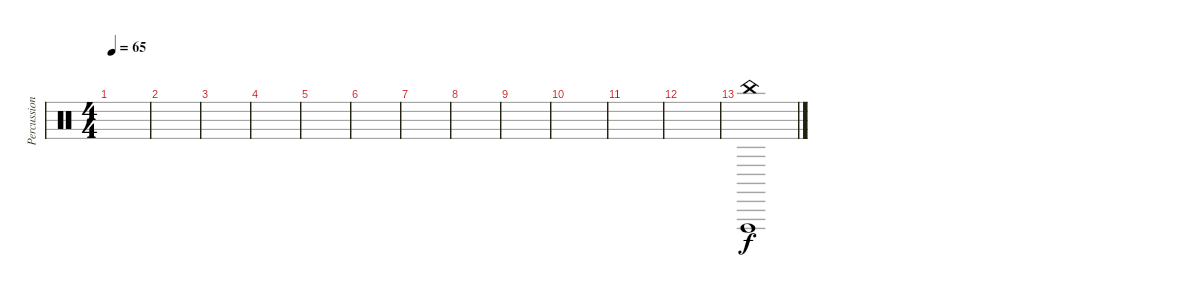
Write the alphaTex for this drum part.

\track ("Percussion" "Percussion") {instrument percussion}
\staff {score}
\articulation defaults
\ts (4 4)
\tempo 65
\clef neutral
\ks c
|
|
|
|
|
|
|
|
|
|
|
|
("China (hit)" "Vibraslap (hit)").1{volume 12}
